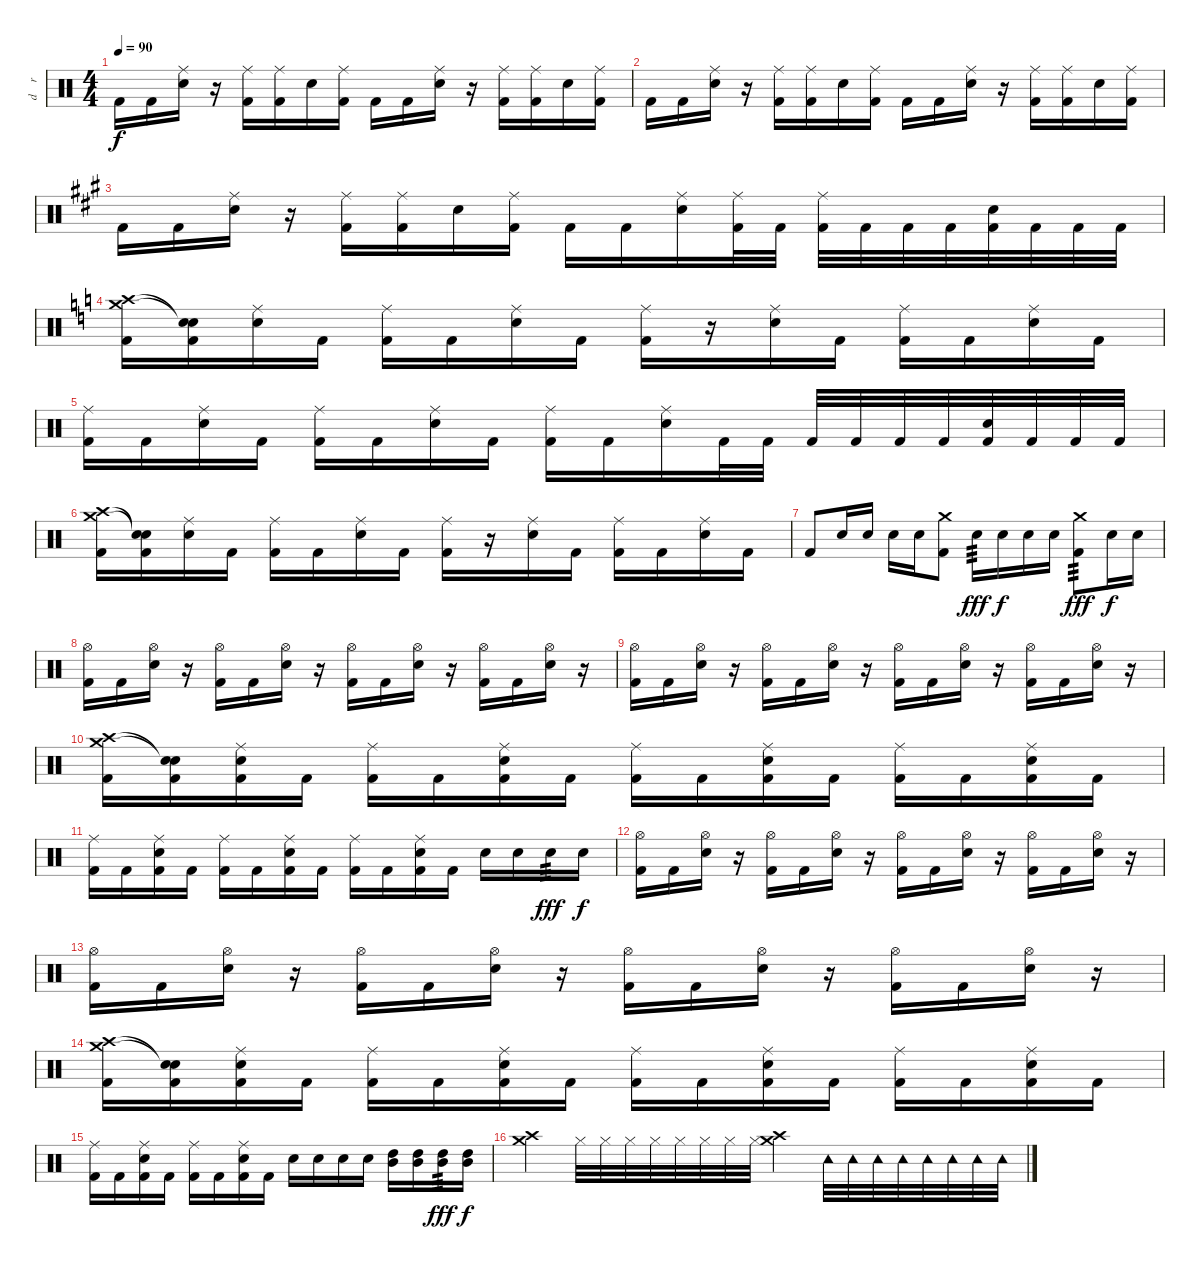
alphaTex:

\track ("d    r     u    m    s" "d    r    ") {instrument percussion}
\staff {score}
\articulation defaults
\ts (4 4)
\tempo 90
\clef neutral
\ks c "Kick (hit) 2".16{dy f} "Kick (hit) 2".16
("Ride (middle)" "Electric Snare (hit)").16 r.16 ("Ride (middle)" "Kick (hit) 2").16 ("Ride (middle)" "Kick (hit) 2").16 "Electric Snare (hit)".16 ("Ride (middle)" "Kick (hit) 2").16 "Kick (hit) 2".16 "Kick (hit) 2".16 ("Ride (middle)" "Electric Snare (hit)").16 r.16 ("Ride (middle)" "Kick (hit) 2").16 ("Ride (middle)" "Kick (hit) 2").16 "Electric Snare (hit)".16 ("Ride (middle)" "Kick (hit) 2").16 |
"Kick (hit) 2".16 "Kick (hit) 2".16 ("Ride (middle)" "Electric Snare (hit)").16 r.16 ("Ride (middle)" "Kick (hit) 2").16 ("Ride (middle)" "Kick (hit) 2").16 "Electric Snare (hit)".16 ("Ride (middle)" "Kick (hit) 2").16 "Kick (hit) 2".16 "Kick (hit) 2".16 ("Ride (middle)" "Electric Snare (hit)").16 r.16 ("Ride (middle)" "Kick (hit) 2").16 ("Ride (middle)" "Kick (hit) 2").16 "Electric Snare (hit)".16 ("Ride (middle)" "Kick (hit) 2").16 |
\ks f#minor "Kick (hit) 2".16 "Kick (hit) 2".16
("Ride (middle)" "Electric Snare (hit)").16 r.16 ("Ride (middle)" "Kick (hit) 2").16 ("Ride (middle)" "Kick (hit) 2").16 "Electric Snare (hit)".16 ("Ride (middle)" "Kick (hit) 2").16 "Kick (hit) 2".16 "Kick (hit) 2".16 ("Ride (middle)" "Electric Snare (hit)").16 ("Ride (middle)" "Kick (hit) 2").32 "Kick (hit) 2".32 ("Ride (middle)" "Kick (hit) 2").32 "Kick (hit) 2".32 "Kick (hit) 2".32 "Kick (hit) 2".32 ("Electric Snare (hit)" "Kick (hit) 2").32 "Kick (hit) 2".32 "Kick (hit) 2".32 "Kick (hit) 2".32 |
\ks c
("Crash high (hit)" "Crash medium (hit)" "Kick (hit) 2").16 ("Snare (hit)"{t} "Snare (hit)"{t} "Kick (hit) 2").16 ("Ride (middle)" "Electric Snare (hit)").16 "Kick (hit) 2".16 ("Ride (middle)" "Kick (hit) 2").16 "Kick (hit) 2".16 ("Ride (middle)" "Electric Snare (hit)").16 "Kick (hit) 2".16 ("Ride (middle)" "Kick (hit) 2").16 r.16 ("Ride (middle)" "Electric Snare (hit)").16 "Kick (hit) 2".16 ("Ride (middle)" "Kick (hit) 2").16 "Kick (hit) 2".16 ("Ride (middle)" "Electric Snare (hit)").16 "Kick (hit) 2".16 |
("Ride (middle)" "Kick (hit) 2").16 "Kick (hit) 2".16 ("Ride (middle)" "Electric Snare (hit)").16 "Kick (hit) 2".16 ("Ride (middle)" "Kick (hit) 2").16 "Kick (hit) 2".16 ("Ride (middle)" "Electric Snare (hit)").16 "Kick (hit) 2".16 ("Ride (middle)" "Kick (hit) 2").16 "Kick (hit) 2".16 ("Ride (middle)" "Electric Snare (hit)").16 "Kick (hit) 2".32 "Kick (hit) 2".32 "Kick (hit) 2".32 "Kick (hit) 2".32 "Kick (hit) 2".32 "Kick (hit) 2".32 ("Electric Snare (hit)" "Kick (hit) 2").32 "Kick (hit) 2".32 "Kick (hit) 2".32 "Kick (hit) 2".32 |
("Crash high (hit)" "Crash medium (hit)" "Kick (hit) 2").16 ("Snare (hit)"{t} "Snare (hit)"{t} "Kick (hit) 2").16 ("Ride (middle)" "Electric Snare (hit)").16 "Kick (hit) 2".16 ("Ride (middle)" "Kick (hit) 2").16 "Kick (hit) 2".16 ("Ride (middle)" "Electric Snare (hit)").16 "Kick (hit) 2".16 ("Ride (middle)" "Kick (hit) 2").16 r.16 ("Ride (middle)" "Electric Snare (hit)").16 "Kick (hit) 2".16 ("Ride (middle)" "Kick (hit) 2").16 "Kick (hit) 2".16 ("Ride (middle)" "Electric Snare (hit)").16 "Kick (hit) 2".16 |
"Kick (hit) 2".8 "Electric Snare (hit)".16 "Electric Snare (hit)".16 "Electric Snare (hit)".16 "Electric Snare (hit)".16 ("Crash medium (hit)" "Kick (hit) 2").8 "Electric Snare (hit)".16{tp 3 dy fff} "Electric Snare (hit)".16{dy f} "Electric Snare (hit)".16 "Electric Snare (hit)".16 ("Crash medium (hit)" "Kick (hit) 2").8{tp 3 dy fff} "Electric Snare (hit)".16{dy f} "Electric Snare (hit)".16 |
("Hi-Hat (open)" "Kick (hit) 2").16 "Kick (hit) 2".16 ("Hi-Hat (open)" "Electric Snare (hit)").16 r.16 ("Hi-Hat (open)" "Kick (hit) 2").16 "Kick (hit) 2".16 ("Hi-Hat (open)" "Electric Snare (hit)").16 r.16 ("Hi-Hat (open)" "Kick (hit) 2").16 "Kick (hit) 2".16 ("Hi-Hat (open)" "Electric Snare (hit)").16 r.16 ("Hi-Hat (open)" "Kick (hit) 2").16 "Kick (hit) 2".16 ("Hi-Hat (open)" "Electric Snare (hit)").16 r.16 |
("Hi-Hat (open)" "Kick (hit) 2").16 "Kick (hit) 2".16 ("Hi-Hat (open)" "Electric Snare (hit)").16 r.16 ("Hi-Hat (open)" "Kick (hit) 2").16 "Kick (hit) 2".16 ("Hi-Hat (open)" "Electric Snare (hit)").16 r.16 ("Hi-Hat (open)" "Kick (hit) 2").16 "Kick (hit) 2".16 ("Hi-Hat (open)" "Electric Snare (hit)").16 r.16 ("Hi-Hat (open)" "Kick (hit) 2").16 "Kick (hit) 2".16 ("Hi-Hat (open)" "Electric Snare (hit)").16 r.16 |
("Crash high (hit)" "Crash medium (hit)" "Kick (hit) 2").16 ("Snare (hit)"{t} "Snare (hit)"{t} "Kick (hit) 2").16 ("Ride (middle)" "Electric Snare (hit)" "Kick (hit) 2").16 "Kick (hit) 2".16 ("Ride (middle)" "Kick (hit) 2").16 "Kick (hit) 2".16 ("Ride (middle)" "Electric Snare (hit)" "Kick (hit) 2").16 "Kick (hit) 2".16 ("Ride (middle)" "Kick (hit) 2").16 "Kick (hit) 2".16 ("Ride (middle)" "Electric Snare (hit)" "Kick (hit) 2").16 "Kick (hit) 2".16 ("Ride (middle)" "Kick (hit) 2").16 "Kick (hit) 2".16 ("Ride (middle)" "Electric Snare (hit)" "Kick (hit) 2").16 "Kick (hit) 2".16 |
("Ride (middle)" "Kick (hit) 2").16 "Kick (hit) 2".16 ("Ride (middle)" "Electric Snare (hit)" "Kick (hit) 2").16 "Kick (hit) 2".16 ("Ride (middle)" "Kick (hit) 2").16 "Kick (hit) 2".16 ("Ride (middle)" "Electric Snare (hit)" "Kick (hit) 2").16 "Kick (hit) 2".16 ("Ride (middle)" "Kick (hit) 2").16 "Kick (hit) 2".16 ("Ride (middle)" "Electric Snare (hit)" "Kick (hit) 2").16 "Kick (hit) 2".16 "Electric Snare (hit)".16 "Electric Snare (hit)".16 "Electric Snare (hit)".16{tp 3 dy fff} "Electric Snare (hit)".16{dy f} |
("Hi-Hat (open)" "Kick (hit) 2").16 "Kick (hit) 2".16 ("Hi-Hat (open)" "Electric Snare (hit)").16 r.16 ("Hi-Hat (open)" "Kick (hit) 2").16 "Kick (hit) 2".16 ("Hi-Hat (open)" "Electric Snare (hit)").16 r.16 ("Hi-Hat (open)" "Kick (hit) 2").16 "Kick (hit) 2".16 ("Hi-Hat (open)" "Electric Snare (hit)").16 r.16 ("Hi-Hat (open)" "Kick (hit) 2").16 "Kick (hit) 2".16 ("Hi-Hat (open)" "Electric Snare (hit)").16 r.16 |
("Hi-Hat (open)" "Kick (hit) 2").16 "Kick (hit) 2".16 ("Hi-Hat (open)" "Electric Snare (hit)").16 r.16 ("Hi-Hat (open)" "Kick (hit) 2").16 "Kick (hit) 2".16 ("Hi-Hat (open)" "Electric Snare (hit)").16 r.16 ("Hi-Hat (open)" "Kick (hit) 2").16 "Kick (hit) 2".16 ("Hi-Hat (open)" "Electric Snare (hit)").16 r.16 ("Hi-Hat (open)" "Kick (hit) 2").16 "Kick (hit) 2".16 ("Hi-Hat (open)" "Electric Snare (hit)").16 r.16 |
("Crash high (hit)" "Crash medium (hit)" "Kick (hit) 2").16 ("Snare (hit)"{t} "Snare (hit)"{t} "Kick (hit) 2").16 ("Ride (middle)" "Electric Snare (hit)" "Kick (hit) 2").16 "Kick (hit) 2".16 ("Ride (middle)" "Kick (hit) 2").16 "Kick (hit) 2".16 ("Ride (middle)" "Electric Snare (hit)" "Kick (hit) 2").16 "Kick (hit) 2".16 ("Ride (middle)" "Kick (hit) 2").16 "Kick (hit) 2".16 ("Ride (middle)" "Electric Snare (hit)" "Kick (hit) 2").16 "Kick (hit) 2".16 ("Ride (middle)" "Kick (hit) 2").16 "Kick (hit) 2".16 ("Ride (middle)" "Electric Snare (hit)" "Kick (hit) 2").16 "Kick (hit) 2".16 |
("Ride (middle)" "Kick (hit) 2").16 "Kick (hit) 2".16 ("Ride (middle)" "Electric Snare (hit)" "Kick (hit) 2").16 "Kick (hit) 2".16 ("Ride (middle)" "Kick (hit) 2").16 "Kick (hit) 2".16 ("Ride (middle)" "Electric Snare (hit)" "Kick (hit) 2").16 "Kick (hit) 2".16 "Electric Snare (hit)".16 "Electric Snare (hit)".16 "Electric Snare (hit)".16 "Electric Snare (hit)".16 ("Mid Tom (hit)" "High Tom (hit)").16 ("Mid Tom (hit)" "High Tom (hit)").16 ("Mid Tom (hit)" "High Tom (hit)").16{tp 3 dy fff} ("Mid Tom (hit)" "High Tom (hit)").16{dy f} |
("Crash high (hit)" "Crash medium (hit)").4 "Hi-Hat (closed)".32 "Hi-Hat (closed)".32 "Hi-Hat (closed)".32 "Hi-Hat (closed)".32 "Hi-Hat (closed)".32 "Hi-Hat (closed)".32 "Hi-Hat (closed)".32 "Hi-Hat (closed)".32 ("Crash high (hit)" "Crash medium (hit)").4 "Tambourine (hit)".32 "Tambourine (hit)".32 "Tambourine (hit)".32 "Tambourine (hit)".32 "Tambourine (hit)".32 "Tambourine (hit)".32 "Tambourine (hit)".32 "Tambourine (hit)".32
